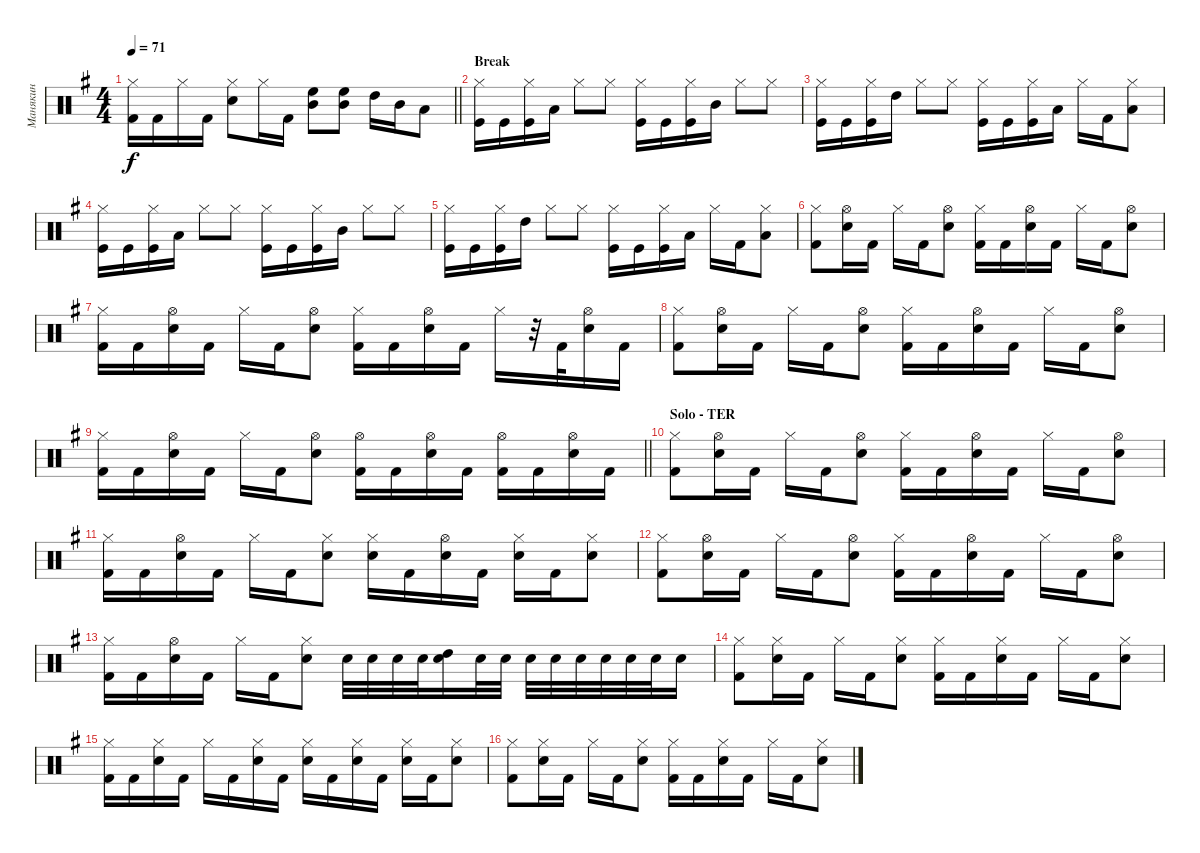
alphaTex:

\track ("Манякин" "Манякин") {instrument percussion}
\staff {score}
\articulation defaults
\ts (4 4)
\tempo 71
\clef neutral
\barLineRight lightlight
\ks eminor
("Hi-Hat (closed)" "Kick (hit) 2").16{dy f} "Kick (hit) 2".16 "Hi-Hat (closed)".16 "Kick (hit) 2".16 ("Hi-Hat (closed)" "Snare (hit) 2").8 "Hi-Hat (closed)".16 "Kick (hit) 2".16 ("High Floor Tom (hit)" "Mid Tom (hit)").8 ("High Floor Tom (hit)" "Mid Tom (hit)").8 "High Tom (hit)".16 "Mid Tom (hit)".16 "Low Tom (hit)".8 |
\section ("" "Break")
("Hi-Hat (closed)" "Kick (hit)").16 "Kick (hit)".16 ("Hi-Hat (closed)" "Kick (hit)").16 "Low Tom (hit)".16 "Hi-Hat (closed)".8 "Hi-Hat (closed)".8 ("Hi-Hat (closed)" "Kick (hit)").16 "Kick (hit)".16 ("Hi-Hat (closed)" "Kick (hit)").16 "Mid Tom (hit)".16 "Hi-Hat (closed)".8 "Hi-Hat (closed)".8 |
("Hi-Hat (closed)" "Kick (hit)").16 "Kick (hit)".16 ("Hi-Hat (closed)" "Kick (hit)").16 "High Tom (hit)".16 "Hi-Hat (closed)".8 "Hi-Hat (closed)".8 ("Hi-Hat (closed)" "Kick (hit)").16 "Kick (hit)".16 ("Hi-Hat (closed)" "Kick (hit)").16 "Low Tom (hit)".16 "Hi-Hat (closed)".16 "Kick (hit) 2".16 ("Hi-Hat (closed)" "Low Tom (hit)").8 |
("Hi-Hat (closed)" "Kick (hit)").16 "Kick (hit)".16 ("Hi-Hat (closed)" "Kick (hit)").16 "Low Tom (hit)".16 "Hi-Hat (closed)".8 "Hi-Hat (closed)".8 ("Hi-Hat (closed)" "Kick (hit)").16 "Kick (hit)".16 ("Hi-Hat (closed)" "Kick (hit)").16 "Mid Tom (hit)".16 "Hi-Hat (closed)".8 "Hi-Hat (closed)".8 |
("Hi-Hat (closed)" "Kick (hit)").16 "Kick (hit)".16 ("Hi-Hat (closed)" "Kick (hit)").16 "High Tom (hit)".16 "Hi-Hat (closed)".8 "Hi-Hat (closed)".8 ("Hi-Hat (closed)" "Kick (hit)").16 "Kick (hit)".16 ("Hi-Hat (closed)" "Kick (hit)").16 "Low Tom (hit)".16 "Hi-Hat (closed)".16 "Kick (hit) 2".16 ("Hi-Hat (closed)" "Low Tom (hit)").8 |
("Hi-Hat (closed)" "Kick (hit) 2").8 ("Hi-Hat (open)" "Snare (hit) 2").16 "Kick (hit) 2".16 "Hi-Hat (closed)".16 "Kick (hit) 2".16 ("Hi-Hat (open)" "Snare (hit) 2").8 ("Hi-Hat (closed)" "Kick (hit) 2").16 "Kick (hit) 2".16 ("Hi-Hat (open)" "Snare (hit) 2").16 "Kick (hit) 2".16 "Hi-Hat (closed)".16 "Kick (hit) 2".16 ("Hi-Hat (open)" "Snare (hit) 2").8 |
("Hi-Hat (closed)" "Kick (hit) 2").16 "Kick (hit) 2".16 ("Hi-Hat (open)" "Snare (hit) 2").16 "Kick (hit) 2".16 "Hi-Hat (closed)".16 "Kick (hit) 2".16 ("Hi-Hat (open)" "Snare (hit) 2").8 ("Hi-Hat (closed)" "Kick (hit) 2").16 "Kick (hit) 2".16 ("Hi-Hat (open)" "Snare (hit) 2").16 "Kick (hit) 2".16 "Hi-Hat (closed)".16 r.32 "Kick (hit) 2".32 ("Hi-Hat (open)" "Snare (hit) 2").16 "Kick (hit) 2".16 |
("Hi-Hat (closed)" "Kick (hit) 2").8 ("Hi-Hat (open)" "Snare (hit) 2").16 "Kick (hit) 2".16 "Hi-Hat (closed)".16 "Kick (hit) 2".16 ("Hi-Hat (open)" "Snare (hit) 2").8 ("Hi-Hat (closed)" "Kick (hit) 2").16 "Kick (hit) 2".16 ("Hi-Hat (open)" "Snare (hit) 2").16 "Kick (hit) 2".16 "Hi-Hat (closed)".16 "Kick (hit) 2".16 ("Hi-Hat (open)" "Snare (hit) 2").8 |
\barLineRight lightlight
("Hi-Hat (closed)" "Kick (hit) 2").16 "Kick (hit) 2".16 ("Hi-Hat (open)" "Snare (hit) 2").16 "Kick (hit) 2".16 "Hi-Hat (closed)".16 "Kick (hit) 2".16 ("Hi-Hat (open)" "Snare (hit) 2").8 ("Hi-Hat (open)" "Kick (hit) 2").16 "Kick (hit) 2".16 ("Hi-Hat (open)" "Snare (hit) 2").16 "Kick (hit) 2".16 ("Hi-Hat (open)" "Kick (hit) 2").16 "Kick (hit) 2".16 ("Hi-Hat (open)" "Snare (hit) 2").16 "Kick (hit) 2".16 |
\section ("" "Solo - TER")
("Hi-Hat (closed)" "Kick (hit) 2").8 ("Hi-Hat (open)" "Snare (hit) 2").16 "Kick (hit) 2".16 "Hi-Hat (closed)".16 "Kick (hit) 2".16 ("Hi-Hat (open)" "Snare (hit) 2").8 ("Hi-Hat (closed)" "Kick (hit) 2").16 "Kick (hit) 2".16 ("Hi-Hat (open)" "Snare (hit) 2").16 "Kick (hit) 2".16 "Hi-Hat (closed)".16 "Kick (hit) 2".16 ("Hi-Hat (open)" "Snare (hit) 2").8 |
("Hi-Hat (closed)" "Kick (hit) 2").16 "Kick (hit) 2".16 ("Hi-Hat (open)" "Snare (hit) 2").16 "Kick (hit) 2".16 "Hi-Hat (closed)".16 "Kick (hit) 2".16 ("Hi-Hat (closed)" "Snare (hit) 2").8 ("Hi-Hat (closed)" "Snare (hit) 2").16 "Kick (hit) 2".16 ("Hi-Hat (open)" "Snare (hit) 2").16 "Kick (hit) 2".16 ("Hi-Hat (closed)" "Snare (hit) 2").16 "Kick (hit) 2".16 ("Hi-Hat (closed)" "Snare (hit) 2").8 |
("Hi-Hat (closed)" "Kick (hit) 2").8 ("Hi-Hat (open)" "Snare (hit) 2").16 "Kick (hit) 2".16 "Hi-Hat (closed)".16 "Kick (hit) 2".16 ("Hi-Hat (open)" "Snare (hit) 2").8 ("Hi-Hat (closed)" "Kick (hit) 2").16 "Kick (hit) 2".16 ("Hi-Hat (open)" "Snare (hit) 2").16 "Kick (hit) 2".16 "Hi-Hat (closed)".16 "Kick (hit) 2".16 ("Hi-Hat (open)" "Snare (hit) 2").8 |
("Hi-Hat (closed)" "Kick (hit) 2").16 "Kick (hit) 2".16 ("Hi-Hat (open)" "Snare (hit) 2").16 "Kick (hit) 2".16 "Hi-Hat (closed)".16 "Kick (hit) 2".16 ("Hi-Hat (closed)" "Snare (hit) 2").8 "Snare (hit) 2".32 "Snare (hit) 2".32 "Snare (hit) 2".32 "Snare (hit) 2".32 ("High Tom (hit)" "Snare (hit) 2").16 "Snare (hit) 2".32 "Snare (hit) 2".32 "Snare (hit) 2".32 "Snare (hit) 2".32 "Snare (hit) 2".32 "Snare (hit) 2".32 "Snare (hit) 2".32 "Snare (hit) 2".32 "Snare (hit) 2".16 |
("Hi-Hat (closed)" "Kick (hit) 2").8 ("Hi-Hat (closed)" "Snare (hit) 2").16 "Kick (hit) 2".16 "Hi-Hat (closed)".16 "Kick (hit) 2".16 ("Hi-Hat (closed)" "Snare (hit) 2").8 ("Hi-Hat (closed)" "Kick (hit) 2").16 "Kick (hit) 2".16 ("Hi-Hat (closed)" "Snare (hit) 2").16 "Kick (hit) 2".16 "Hi-Hat (closed)".16 "Kick (hit) 2".16 ("Hi-Hat (closed)" "Snare (hit) 2").8 |
("Hi-Hat (closed)" "Kick (hit) 2").16 "Kick (hit) 2".16 ("Hi-Hat (closed)" "Snare (hit) 2").16 "Kick (hit) 2".16 "Hi-Hat (closed)".16 "Kick (hit) 2".16 ("Hi-Hat (closed)" "Snare (hit) 2").16 "Kick (hit) 2".16 ("Hi-Hat (closed)" "Snare (hit) 2").16 "Kick (hit) 2".16 ("Hi-Hat (closed)" "Snare (hit) 2").16 "Kick (hit) 2".16 ("Hi-Hat (closed)" "Snare (hit) 2").16 "Kick (hit) 2".16 ("Hi-Hat (closed)" "Snare (hit) 2").8 |
("Hi-Hat (closed)" "Kick (hit) 2").8 ("Hi-Hat (closed)" "Snare (hit) 2").16 "Kick (hit) 2".16 "Hi-Hat (closed)".16 "Kick (hit) 2".16 ("Hi-Hat (closed)" "Snare (hit) 2").8 ("Hi-Hat (closed)" "Kick (hit) 2").16 "Kick (hit) 2".16 ("Hi-Hat (closed)" "Snare (hit) 2").16 "Kick (hit) 2".16 "Hi-Hat (closed)".16 "Kick (hit) 2".16 ("Hi-Hat (closed)" "Snare (hit) 2").8
